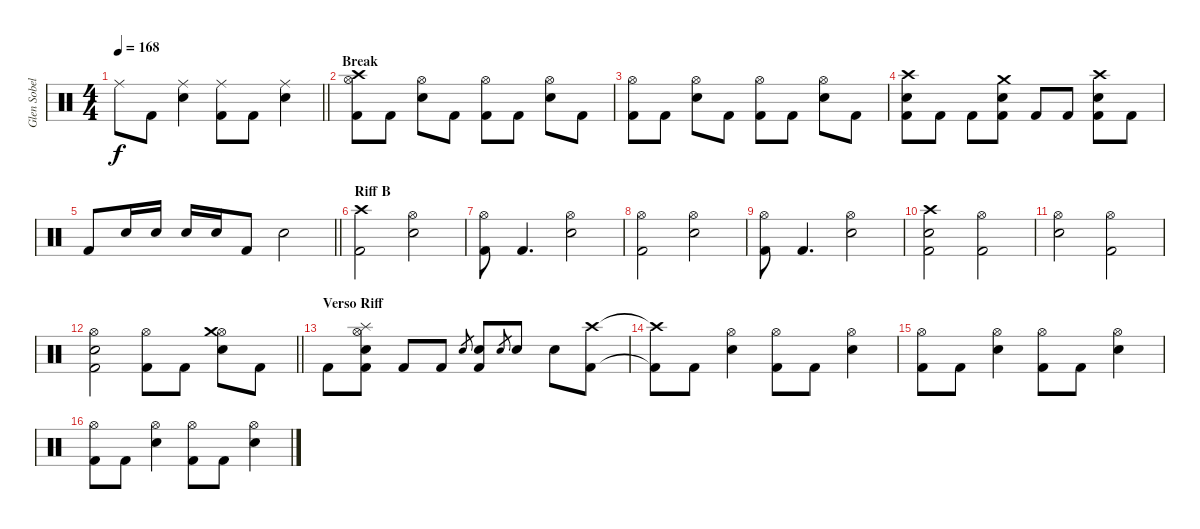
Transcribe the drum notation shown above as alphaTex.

\track ("Glen Sobel" "Glen Sobel") {instrument percussion}
\staff {score}
\articulation defaults
\ts (4 4)
\tempo 168
\clef neutral
\barLineRight lightlight
\ks c "Ride (middle)".8{dy f} "Kick (hit) 2".8
("Ride (middle)" "Snare (hit) 2").4 ("Ride (middle)" "Kick (hit) 2").8 "Kick (hit) 2".8 ("Ride (middle)" "Snare (hit) 2").4 |
\section ("" "Break")
("Hi-Hat (open)" "Crash high (hit)" "Kick (hit) 2").8 "Kick (hit) 2".8 ("Hi-Hat (open)" "Snare (hit) 2").8 "Kick (hit) 2".8 ("Hi-Hat (open)" "Kick (hit) 2").8 "Kick (hit) 2".8 ("Hi-Hat (open)" "Snare (hit) 2").8 "Kick (hit) 2".8 |
("Hi-Hat (open)" "Kick (hit) 2").8 "Kick (hit) 2".8 ("Hi-Hat (open)" "Snare (hit) 2").8 "Kick (hit) 2".8 ("Hi-Hat (open)" "Kick (hit) 2").8 "Kick (hit) 2".8 ("Hi-Hat (open)" "Snare (hit) 2").8 "Kick (hit) 2".8 |
("Snare (hit) 2" "Crash high (hit)" "Kick (hit) 2").8 "Kick (hit) 2".8 "Kick (hit) 2".8 ("Snare (hit) 2" "Crash medium (hit)" "Kick (hit) 2").8 "Kick (hit) 2".8 "Kick (hit) 2".8 ("Snare (hit) 2" "Crash high (hit)" "Kick (hit) 2").8 "Kick (hit) 2".8 |
\barLineRight lightlight "Kick (hit) 2".8 "Snare (hit) 2".16 "Snare (hit) 2".16 "Snare (hit) 2".16 "Snare (hit) 2".16 "Kick (hit) 2".8 "Snare (hit) 2".2
|
\section ("" "Riff B")
("Crash high (hit)" "Kick (hit) 2").2 ("Hi-Hat (open)" "Snare (hit) 2").2 |
("Hi-Hat (open)" "Kick (hit) 2").8 "Kick (hit) 2".4{d} ("Hi-Hat (open)" "Snare (hit) 2").2 |
("Hi-Hat (open)" "Kick (hit) 2").2 ("Hi-Hat (open)" "Snare (hit) 2").2 |
("Hi-Hat (open)" "Kick (hit) 2").8 "Kick (hit) 2".4{d} ("Hi-Hat (open)" "Snare (hit) 2").2 |
("Snare (hit) 2" "Crash high (hit)" "Kick (hit) 2").2 ("Hi-Hat (open)" "Kick (hit) 2").2 |
("Hi-Hat (open)" "Snare (hit) 2").2 ("Hi-Hat (open)" "Kick (hit) 2").2 |
\barLineRight lightlight
("Hi-Hat (open)" "Snare (hit) 2" "Kick (hit) 2").2 ("Hi-Hat (open)" "Kick (hit) 2").8 "Kick (hit) 2".8 ("Hi-Hat (open)" "Snare (hit) 2" "Crash medium (hit)").8 "Kick (hit) 2".8 |
\section ("" "Verso Riff")
"Kick (hit) 2".8 ("Hi-Hat (open)" "Snare (hit) 2" "Splash (hit)" "Kick (hit) 2").8 "Kick (hit) 2".8 "Kick (hit) 2".8 "Snare (hit) 2".8{gr} ("Snare (hit) 2" "Kick (hit) 2").8 "Snare (hit) 2".8{gr} "Snare (hit) 2".8 "Snare (hit) 2".8 ("Crash high (hit)" "Kick (hit) 2").8 |
("Crash high (hit)"{t} "Kick (hit) 2"{t}).8 "Kick (hit) 2".8 ("Hi-Hat (open)" "Snare (hit) 2").4 ("Hi-Hat (open)" "Kick (hit) 2").8 "Kick (hit) 2".8 ("Hi-Hat (open)" "Snare (hit) 2").4 |
("Hi-Hat (open)" "Kick (hit) 2").8 "Kick (hit) 2".8 ("Hi-Hat (open)" "Snare (hit) 2").4 ("Hi-Hat (open)" "Kick (hit) 2").8 "Kick (hit) 2".8 ("Hi-Hat (open)" "Snare (hit) 2").4 |
("Hi-Hat (open)" "Kick (hit) 2").8 "Kick (hit) 2".8 ("Hi-Hat (open)" "Snare (hit) 2").4 ("Hi-Hat (open)" "Kick (hit) 2").8 "Kick (hit) 2".8 ("Hi-Hat (open)" "Snare (hit) 2").4
